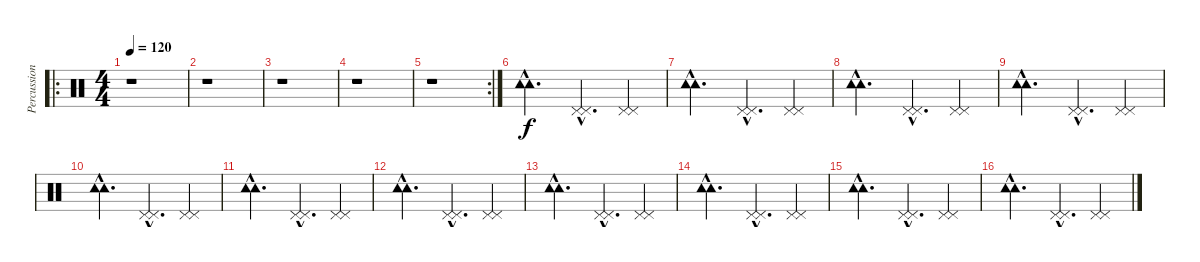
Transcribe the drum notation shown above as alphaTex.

\track ("Percussioni" "Percussion") {instrument percussion}
\staff {score}
\articulation defaults
\ro
\ts (4 4)
\tempo 120
\clef neutral
\ks c
r.1{dy f} |
r.1 |
r.1 |
r.1 |
\rc 2
r.1 |
("Tambourine (hit)"{hac} "Tambourine (hit)"{hac}).4{d} ("Pedal Hi-Hat (hit)"{hac} "Pedal Hi-Hat (hit)"{hac}).4{d} ("Pedal Hi-Hat (hit)" "Pedal Hi-Hat (hit)").4 |
("Tambourine (hit)"{hac} "Tambourine (hit)"{hac}).4{d} ("Pedal Hi-Hat (hit)"{hac} "Pedal Hi-Hat (hit)"{hac}).4{d} ("Pedal Hi-Hat (hit)" "Pedal Hi-Hat (hit)").4 |
("Tambourine (hit)"{hac} "Tambourine (hit)"{hac}).4{d} ("Pedal Hi-Hat (hit)"{hac} "Pedal Hi-Hat (hit)"{hac}).4{d} ("Pedal Hi-Hat (hit)" "Pedal Hi-Hat (hit)").4 |
("Tambourine (hit)"{hac} "Tambourine (hit)"{hac}).4{d} ("Pedal Hi-Hat (hit)"{hac} "Pedal Hi-Hat (hit)"{hac}).4{d} ("Pedal Hi-Hat (hit)" "Pedal Hi-Hat (hit)").4 |
("Tambourine (hit)"{hac} "Tambourine (hit)"{hac}).4{d} ("Pedal Hi-Hat (hit)"{hac} "Pedal Hi-Hat (hit)"{hac}).4{d} ("Pedal Hi-Hat (hit)" "Pedal Hi-Hat (hit)").4 |
("Tambourine (hit)"{hac} "Tambourine (hit)"{hac}).4{d} ("Pedal Hi-Hat (hit)"{hac} "Pedal Hi-Hat (hit)"{hac}).4{d} ("Pedal Hi-Hat (hit)" "Pedal Hi-Hat (hit)").4 |
("Tambourine (hit)"{hac} "Tambourine (hit)"{hac}).4{d} ("Pedal Hi-Hat (hit)"{hac} "Pedal Hi-Hat (hit)"{hac}).4{d} ("Pedal Hi-Hat (hit)" "Pedal Hi-Hat (hit)").4 |
("Tambourine (hit)"{hac} "Tambourine (hit)"{hac}).4{d} ("Pedal Hi-Hat (hit)"{hac} "Pedal Hi-Hat (hit)"{hac}).4{d} ("Pedal Hi-Hat (hit)" "Pedal Hi-Hat (hit)").4 |
("Tambourine (hit)"{hac} "Tambourine (hit)"{hac}).4{d} ("Pedal Hi-Hat (hit)"{hac} "Pedal Hi-Hat (hit)"{hac}).4{d} ("Pedal Hi-Hat (hit)" "Pedal Hi-Hat (hit)").4 |
("Tambourine (hit)"{hac} "Tambourine (hit)"{hac}).4{d} ("Pedal Hi-Hat (hit)"{hac} "Pedal Hi-Hat (hit)"{hac}).4{d} ("Pedal Hi-Hat (hit)" "Pedal Hi-Hat (hit)").4 |
("Tambourine (hit)"{hac} "Tambourine (hit)"{hac}).4{d} ("Pedal Hi-Hat (hit)"{hac} "Pedal Hi-Hat (hit)"{hac}).4{d} ("Pedal Hi-Hat (hit)" "Pedal Hi-Hat (hit)").4
